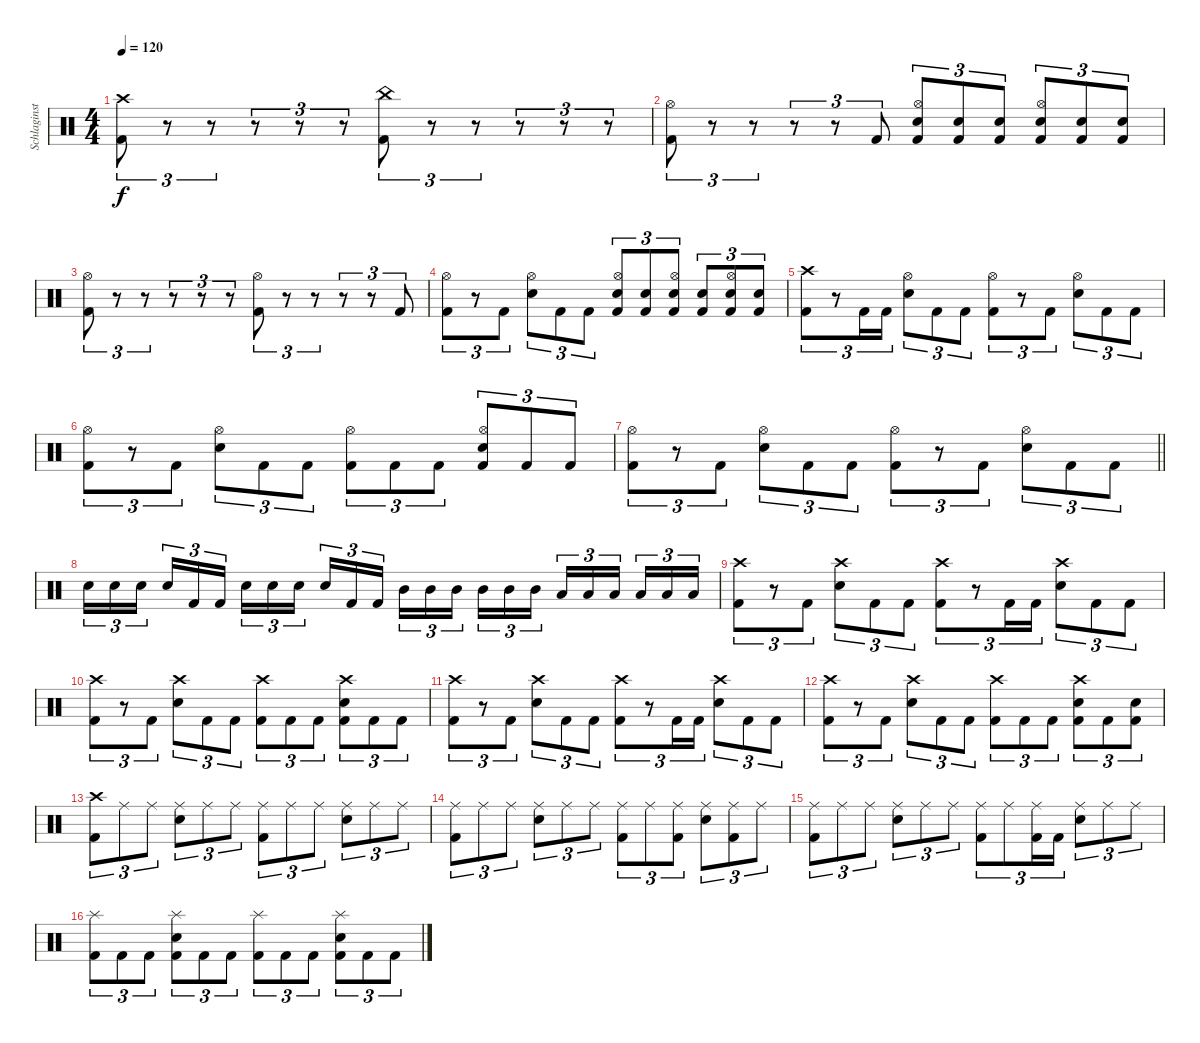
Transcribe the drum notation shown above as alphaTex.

\track ("Schlaginstrumente - Auswahl" "Schlaginst") {instrument percussion}
\staff {score}
\articulation defaults
\ts (4 4)
\tempo 120
\clef neutral
\ks c
("Crash high (hit)" "Kick (hit) 2").8{tu (3 2) dy f} r.8{tu (3 2)} r.8{tu (3 2)} r.8{tu (3 2)} r.8{tu (3 2)} r.8{tu (3 2)} ("China (hit)" "Kick (hit) 2").8{tu (3 2)} r.8{tu (3 2)} r.8{tu (3 2)} r.8{tu (3 2)} r.8{tu (3 2)} r.8{tu (3 2)} |
("Hi-Hat (open)" "Kick (hit) 2").8{tu (3 2)} r.8{tu (3 2)} r.8{tu (3 2)} r.8{tu (3 2)} r.8{tu (3 2)} "Kick (hit) 2".8{tu (3 2)} ("Hi-Hat (open)" "Snare (hit) 2" "Kick (hit) 2").8{tu (3 2)} ("Snare (hit) 2" "Kick (hit) 2").8{tu (3 2)} ("Snare (hit) 2" "Kick (hit) 2").8{tu (3 2)} ("Hi-Hat (open)" "Electric Snare (hit)" "Kick (hit) 2").8{tu (3 2)} ("Snare (hit) 2" "Kick (hit) 2").8{tu (3 2)} ("Electric Snare (hit)" "Kick (hit) 2").8{tu (3 2)} |
("Hi-Hat (open)" "Kick (hit) 2").8{tu (3 2)} r.8{tu (3 2)} r.8{tu (3 2)} r.8{tu (3 2)} r.8{tu (3 2)} r.8{tu (3 2)} ("Hi-Hat (open)" "Kick (hit) 2").8{tu (3 2)} r.8{tu (3 2)} r.8{tu (3 2)} r.8{tu (3 2)} r.8{tu (3 2)} "Kick (hit) 2".8{tu (3 2)} |
("Hi-Hat (open)" "Kick (hit) 2").8{tu (3 2)} r.8{tu (3 2)} "Kick (hit) 2".8{tu (3 2)} ("Hi-Hat (open)" "Electric Snare (hit)").8{tu (3 2)} "Kick (hit) 2".8{tu (3 2)} "Kick (hit) 2".8{tu (3 2)} ("Hi-Hat (open)" "Snare (hit) 2" "Kick (hit) 2").8{tu (3 2)} ("Snare (hit) 2" "Kick (hit) 2").8{tu (3 2)} ("Hi-Hat (open)" "Snare (hit) 2" "Kick (hit) 2").8{tu (3 2)} ("Electric Snare (hit)" "Kick (hit) 2").8{tu (3 2)} ("Hi-Hat (open)" "Snare (hit) 2" "Kick (hit) 2").8{tu (3 2)} ("Snare (hit) 2" "Kick (hit) 2").8{tu (3 2)} |
("Crash high (hit)" "Kick (hit) 2").8{tu (3 2)} r.8{tu (3 2)} "Kick (hit) 2".16{tu (3 2)} "Kick (hit) 2".16{tu (3 2)} ("Hi-Hat (open)" "Electric Snare (hit)").8{tu (3 2)} "Kick (hit) 2".8{tu (3 2)} "Kick (hit) 2".8{tu (3 2)} ("Hi-Hat (open)" "Kick (hit) 2").8{tu (3 2)} r.8{tu (3 2)} "Kick (hit) 2".8{tu (3 2)} ("Hi-Hat (open)" "Electric Snare (hit)").8{tu (3 2)} "Kick (hit) 2".8{tu (3 2)} "Kick (hit) 2".8{tu (3 2)} |
("Hi-Hat (open)" "Kick (hit) 2").8{tu (3 2)} r.8{tu (3 2)} "Kick (hit) 2".8{tu (3 2)} ("Hi-Hat (open)" "Electric Snare (hit)").8{tu (3 2)} "Kick (hit) 2".8{tu (3 2)} "Kick (hit) 2".8{tu (3 2)} ("Hi-Hat (open)" "Kick (hit) 2").8{tu (3 2)} "Kick (hit) 2".8{tu (3 2)} "Kick (hit) 2".8{tu (3 2)} ("Hi-Hat (open)" "Electric Snare (hit)" "Kick (hit) 2").8{tu (3 2)} "Kick (hit) 2".8{tu (3 2)} "Kick (hit) 2".8{tu (3 2)} |
\barLineRight lightlight
("Hi-Hat (open)" "Kick (hit) 2").8{tu (3 2)} r.8{tu (3 2)} "Kick (hit) 2".8{tu (3 2)} ("Hi-Hat (open)" "Electric Snare (hit)").8{tu (3 2)} "Kick (hit) 2".8{tu (3 2)} "Kick (hit) 2".8{tu (3 2)} ("Hi-Hat (open)" "Kick (hit) 2").8{tu (3 2)} r.8{tu (3 2)} "Kick (hit) 2".8{tu (3 2)} ("Hi-Hat (open)" "Electric Snare (hit)").8{tu (3 2)} "Kick (hit) 2".8{tu (3 2)} "Kick (hit) 2".8{tu (3 2)} |
"Electric Snare (hit)".16{tu (3 2)} "Electric Snare (hit)".16{tu (3 2)} "Electric Snare (hit)".16{tu (3 2) beam splitsecondary} "Electric Snare (hit)".16{tu (3 2)} "Kick (hit) 2".16{tu (3 2)} "Kick (hit) 2".16{tu (3 2)} "Electric Snare (hit)".16{tu (3 2)} "Electric Snare (hit)".16{tu (3 2)} "Electric Snare (hit)".16{tu (3 2) beam splitsecondary} "Electric Snare (hit)".16{tu (3 2)} "Kick (hit) 2".16{tu (3 2)} "Kick (hit) 2".16{tu (3 2)} "Mid Tom (hit)".16{tu (3 2)} "Mid Tom (hit)".16{tu (3 2)} "Mid Tom (hit)".16{tu (3 2) beam splitsecondary} "Mid Tom (hit)".16{tu (3 2)} "Mid Tom (hit)".16{tu (3 2)} "Mid Tom (hit)".16{tu (3 2)} "Low Tom (hit)".16{tu (3 2)} "Low Tom (hit)".16{tu (3 2)} "Low Tom (hit)".16{tu (3 2) beam splitsecondary} "Low Tom (hit)".16{tu (3 2)} "Low Tom (hit)".16{tu (3 2)} "Low Tom (hit)".16{tu (3 2)} |
("Crash high (hit)" "Kick (hit) 2").8{tu (3 2)} r.8{tu (3 2)} "Kick (hit) 2".8{tu (3 2)} ("Crash high (hit)" "Electric Snare (hit)").8{tu (3 2)} "Kick (hit) 2".8{tu (3 2)} "Kick (hit) 2".8{tu (3 2)} ("Crash high (hit)" "Kick (hit) 2").8{tu (3 2)} r.8{tu (3 2)} "Kick (hit) 2".16{tu (3 2)} "Kick (hit) 2".16{tu (3 2)} ("Crash high (hit)" "Electric Snare (hit)").8{tu (3 2)} "Kick (hit) 2".8{tu (3 2)} "Kick (hit) 2".8{tu (3 2)} |
("Crash high (hit)" "Kick (hit) 2").8{tu (3 2)} r.8{tu (3 2)} "Kick (hit) 2".8{tu (3 2)} ("Crash high (hit)" "Electric Snare (hit)").8{tu (3 2)} "Kick (hit) 2".8{tu (3 2)} "Kick (hit) 2".8{tu (3 2)} ("Crash high (hit)" "Kick (hit) 2").8{tu (3 2)} "Kick (hit) 2".8{tu (3 2)} "Kick (hit) 2".8{tu (3 2)} ("Crash high (hit)" "Electric Snare (hit)" "Kick (hit) 2").8{tu (3 2)} "Kick (hit) 2".8{tu (3 2)} "Kick (hit) 2".8{tu (3 2)} |
("Crash high (hit)" "Kick (hit) 2").8{tu (3 2)} r.8{tu (3 2)} "Kick (hit) 2".8{tu (3 2)} ("Crash high (hit)" "Electric Snare (hit)").8{tu (3 2)} "Kick (hit) 2".8{tu (3 2)} "Kick (hit) 2".8{tu (3 2)} ("Crash high (hit)" "Kick (hit) 2").8{tu (3 2)} r.8{tu (3 2)} "Kick (hit) 2".16{tu (3 2)} "Kick (hit) 2".16{tu (3 2)} ("Crash high (hit)" "Electric Snare (hit)").8{tu (3 2)} "Kick (hit) 2".8{tu (3 2)} "Kick (hit) 2".8{tu (3 2)} |
("Crash high (hit)" "Kick (hit) 2").8{tu (3 2)} r.8{tu (3 2)} "Kick (hit) 2".8{tu (3 2)} ("Crash high (hit)" "Electric Snare (hit)").8{tu (3 2)} "Kick (hit) 2".8{tu (3 2)} "Kick (hit) 2".8{tu (3 2)} ("Crash high (hit)" "Kick (hit) 2").8{tu (3 2)} "Kick (hit) 2".8{tu (3 2)} "Kick (hit) 2".8{tu (3 2)} ("Crash high (hit)" "Electric Snare (hit)" "Kick (hit) 2").8{tu (3 2)} "Kick (hit) 2".8{tu (3 2)} ("Electric Snare (hit)" "Kick (hit) 2").8{tu (3 2)} |
("Crash high (hit)" "Kick (hit) 2").8{tu (3 2)} "Ride (middle)".8{tu (3 2)} "Ride (middle)".8{tu (3 2)} ("Ride (middle)" "Electric Snare (hit)").8{tu (3 2)} "Ride (middle)".8{tu (3 2)} "Ride (middle)".8{tu (3 2)} ("Ride (middle)" "Kick (hit) 2").8{tu (3 2)} "Ride (middle)".8{tu (3 2)} "Ride (middle)".8{tu (3 2)} ("Ride (middle)" "Electric Snare (hit)").8{tu (3 2)} "Ride (middle)".8{tu (3 2)} "Ride (middle)".8{tu (3 2)} |
("Ride (middle)" "Kick (hit) 2").8{tu (3 2)} "Ride (middle)".8{tu (3 2)} "Ride (middle)".8{tu (3 2)} ("Ride (middle)" "Electric Snare (hit)").8{tu (3 2)} "Ride (middle)".8{tu (3 2)} "Ride (middle)".8{tu (3 2)} ("Ride (middle)" "Kick (hit) 2").8{tu (3 2)} "Ride (middle)".8{tu (3 2)} ("Ride (middle)" "Kick (hit) 2").8{tu (3 2)} ("Ride (middle)" "Electric Snare (hit)").8{tu (3 2)} ("Ride (middle)" "Kick (hit) 2").8{tu (3 2)} "Ride (middle)".8{tu (3 2)} |
("Ride (middle)" "Kick (hit) 2").8{tu (3 2)} "Ride (middle)".8{tu (3 2)} "Ride (middle)".8{tu (3 2)} ("Ride (middle)" "Electric Snare (hit)").8{tu (3 2)} "Ride (middle)".8{tu (3 2)} "Ride (middle)".8{tu (3 2)} ("Ride (middle)" "Kick (hit) 2").8{tu (3 2)} "Ride (middle)".8{tu (3 2)} ("Ride (middle)" "Kick (hit) 2").16{tu (3 2)} "Kick (hit) 2".16{tu (3 2)} ("Ride (middle)" "Electric Snare (hit)").8{tu (3 2)} "Ride (middle)".8{tu (3 2)} "Ride (middle)".8{tu (3 2)} |
("Splash (hit)" "Kick (hit) 2").8{tu (3 2)} "Kick (hit) 2".8{tu (3 2)} "Kick (hit) 2".8{tu (3 2)} ("Splash (hit)" "Electric Snare (hit)" "Kick (hit) 2").8{tu (3 2)} "Kick (hit) 2".8{tu (3 2)} "Kick (hit) 2".8{tu (3 2)} ("Splash (hit)" "Kick (hit) 2").8{tu (3 2)} "Kick (hit) 2".8{tu (3 2)} "Kick (hit) 2".8{tu (3 2)} ("Splash (hit)" "Electric Snare (hit)" "Kick (hit) 2").8{tu (3 2)} "Kick (hit) 2".8{tu (3 2)} "Kick (hit) 2".8{tu (3 2)}
